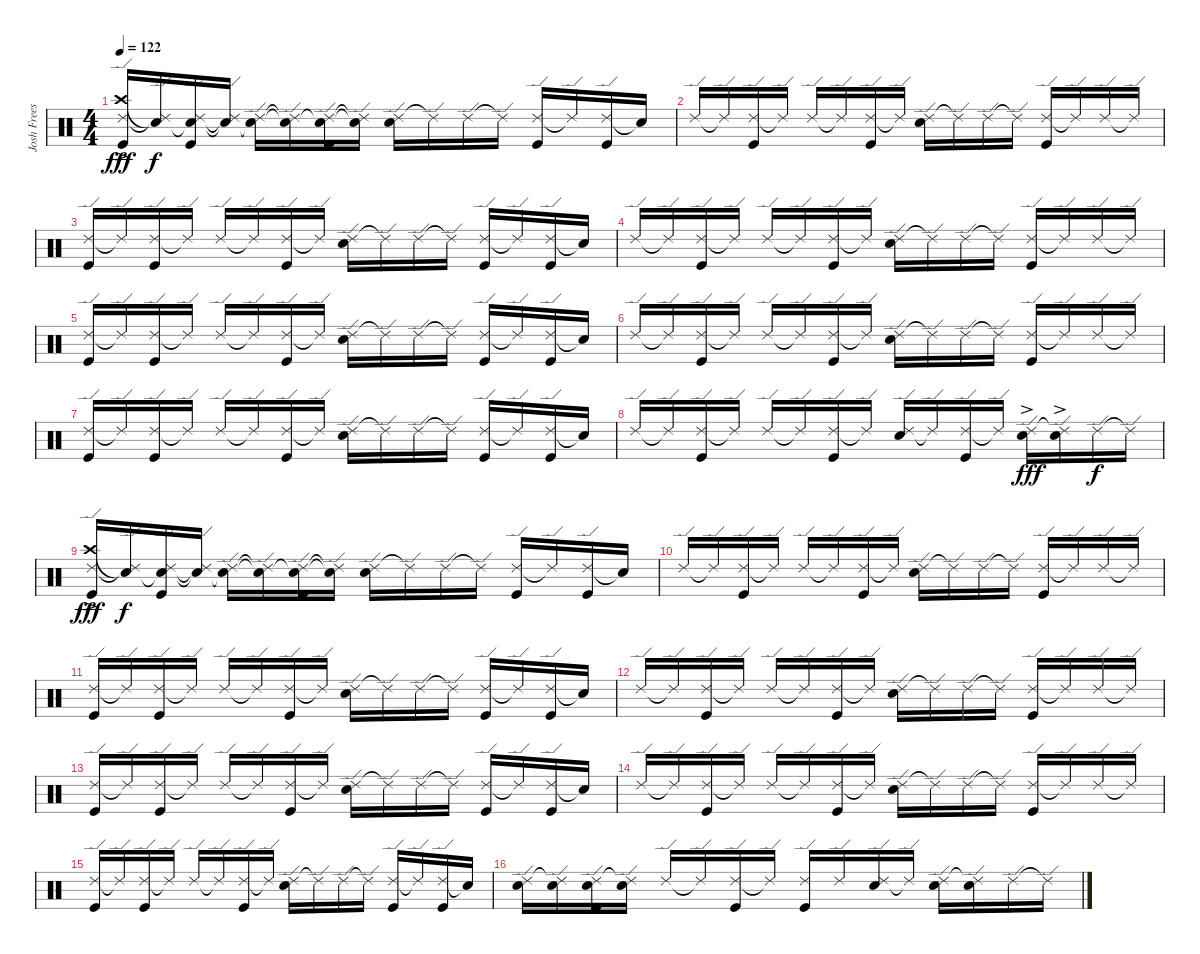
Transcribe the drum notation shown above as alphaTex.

\track ("Josh Freese" "Josh Frees") {instrument percussion}
\staff {score}
\articulation defaults
\ts (4 4)
\tempo 122
\clef neutral
\ks c
("Ride (edge) 2" "Crash high (hit)"{ac} "Kick (hit)").16{dy fff balance 8} ("Ride (edge) 2"{t} "Snare (hit)"{t}).16{dy f} ("Ride (edge) 2" "Snare (hit)"{t} "Kick (hit)").16 ("Ride (edge) 2"{t} "Snare (hit)"{t}).16 ("Ride (edge) 2" "Snare (hit)"{t}).16 ("Ride (edge) 2"{t} "Snare (hit)"{t}).16 ("Ride (edge) 2" "Snare (hit)"{t} "Kick (hit)").16 ("Ride (edge) 2"{t} "Snare (hit)"{t}).16 ("Ride (edge) 2" "Electric Snare (hit)").16 "Ride (edge) 2"{t}.16 "Ride (edge) 2".16 "Ride (edge) 2"{t}.16 ("Ride (edge) 2" "Kick (hit)").16 "Ride (edge) 2"{t}.16 ("Ride (edge) 2" "Kick (hit)").16 "Snare (hit)"{t}.16 |
"Ride (edge) 2".16 "Ride (edge) 2"{t}.16 ("Ride (edge) 2" "Kick (hit)").16 "Ride (edge) 2"{t}.16 "Ride (edge) 2".16 "Ride (edge) 2"{t}.16 ("Ride (edge) 2" "Kick (hit)").16 "Ride (edge) 2"{t}.16 ("Ride (edge) 2" "Electric Snare (hit)").16 "Ride (edge) 2"{t}.16 "Ride (edge) 2".16 "Ride (edge) 2"{t}.16 ("Ride (edge) 2" "Kick (hit)").16 "Ride (edge) 2"{t}.16 "Ride (edge) 2".16 "Ride (edge) 2"{t}.16 |
("Ride (edge) 2" "Kick (hit)").16 "Ride (edge) 2"{t}.16 ("Ride (edge) 2" "Kick (hit)").16 "Ride (edge) 2"{t}.16 "Ride (edge) 2".16 "Ride (edge) 2"{t}.16 ("Ride (edge) 2" "Kick (hit)").16 "Ride (edge) 2"{t}.16 ("Ride (edge) 2" "Electric Snare (hit)").16 "Ride (edge) 2"{t}.16 "Ride (edge) 2".16 "Ride (edge) 2"{t}.16 ("Ride (edge) 2" "Kick (hit)").16 "Ride (edge) 2"{t}.16 ("Ride (edge) 2" "Kick (hit)").16 "Snare (hit)"{t}.16 |
"Ride (edge) 2".16 "Ride (edge) 2"{t}.16 ("Ride (edge) 2" "Kick (hit)").16 "Ride (edge) 2"{t}.16 "Ride (edge) 2".16 "Ride (edge) 2"{t}.16 ("Ride (edge) 2" "Kick (hit)").16 "Ride (edge) 2"{t}.16 ("Ride (edge) 2" "Electric Snare (hit)").16 "Ride (edge) 2"{t}.16 "Ride (edge) 2".16 "Ride (edge) 2"{t}.16 ("Ride (edge) 2" "Kick (hit)").16 "Ride (edge) 2"{t}.16 "Ride (edge) 2".16 "Ride (edge) 2"{t}.16 |
("Ride (edge) 2" "Kick (hit)").16 "Ride (edge) 2"{t}.16 ("Ride (edge) 2" "Kick (hit)").16 "Ride (edge) 2"{t}.16 "Ride (edge) 2".16 "Ride (edge) 2"{t}.16 ("Ride (edge) 2" "Kick (hit)").16 "Ride (edge) 2"{t}.16 ("Ride (edge) 2" "Electric Snare (hit)").16 "Ride (edge) 2"{t}.16 "Ride (edge) 2".16 "Ride (edge) 2"{t}.16 ("Ride (edge) 2" "Kick (hit)").16 "Ride (edge) 2"{t}.16 ("Ride (edge) 2" "Kick (hit)").16 "Snare (hit)"{t}.16 |
"Ride (edge) 2".16 "Ride (edge) 2"{t}.16 ("Ride (edge) 2" "Kick (hit)").16 "Ride (edge) 2"{t}.16 "Ride (edge) 2".16 "Ride (edge) 2"{t}.16 ("Ride (edge) 2" "Kick (hit)").16 "Ride (edge) 2"{t}.16 ("Ride (edge) 2" "Electric Snare (hit)").16 "Ride (edge) 2"{t}.16 "Ride (edge) 2".16 "Ride (edge) 2"{t}.16 ("Ride (edge) 2" "Kick (hit)").16 "Ride (edge) 2"{t}.16 "Ride (edge) 2".16 "Ride (edge) 2"{t}.16 |
("Ride (edge) 2" "Kick (hit)").16 "Ride (edge) 2"{t}.16 ("Ride (edge) 2" "Kick (hit)").16 "Ride (edge) 2"{t}.16 "Ride (edge) 2".16 "Ride (edge) 2"{t}.16 ("Ride (edge) 2" "Kick (hit)").16 "Ride (edge) 2"{t}.16 ("Ride (edge) 2" "Electric Snare (hit)").16 "Ride (edge) 2"{t}.16 "Ride (edge) 2".16 "Ride (edge) 2"{t}.16 ("Ride (edge) 2" "Kick (hit)").16 "Ride (edge) 2"{t}.16 ("Ride (edge) 2" "Kick (hit)").16 "Snare (hit)"{t}.16 |
"Ride (edge) 2".16 "Ride (edge) 2"{t}.16 ("Ride (edge) 2" "Kick (hit)").16 "Ride (edge) 2"{t}.16 "Ride (edge) 2".16 "Ride (edge) 2"{t}.16 ("Ride (edge) 2" "Kick (hit)").16 "Ride (edge) 2"{t}.16 ("Ride (edge) 2" "Electric Snare (hit)").16 "Ride (edge) 2"{t}.16 ("Ride (edge) 2" "Kick (hit)").16 "Ride (edge) 2"{t}.16 ("Ride (edge) 2" "Electric Snare (hit)"{ac}).16{dy fff} ("Ride (edge) 2"{t} "Electric Snare (hit)"{ac}).16 "Ride (edge) 2".16{dy f} "Ride (edge) 2"{t}.16 |
("Ride (edge) 2" "Crash high (hit)"{ac} "Kick (hit)").16{dy fff} ("Ride (edge) 2"{t} "Snare (hit)"{t}).16{dy f} ("Ride (edge) 2" "Snare (hit)"{t} "Kick (hit)").16 ("Ride (edge) 2"{t} "Snare (hit)"{t}).16 ("Ride (edge) 2" "Snare (hit)"{t}).16 ("Ride (edge) 2"{t} "Snare (hit)"{t}).16 ("Ride (edge) 2" "Snare (hit)"{t} "Kick (hit)").16 ("Ride (edge) 2"{t} "Snare (hit)"{t}).16 ("Ride (edge) 2" "Electric Snare (hit)").16 "Ride (edge) 2"{t}.16 "Ride (edge) 2".16 "Ride (edge) 2"{t}.16 ("Ride (edge) 2" "Kick (hit)").16 "Ride (edge) 2"{t}.16 ("Ride (edge) 2" "Kick (hit)").16 "Snare (hit)"{t}.16 |
"Ride (edge) 2".16 "Ride (edge) 2"{t}.16 ("Ride (edge) 2" "Kick (hit)").16 "Ride (edge) 2"{t}.16 "Ride (edge) 2".16 "Ride (edge) 2"{t}.16 ("Ride (edge) 2" "Kick (hit)").16 "Ride (edge) 2"{t}.16 ("Ride (edge) 2" "Electric Snare (hit)").16 "Ride (edge) 2"{t}.16 "Ride (edge) 2".16 "Ride (edge) 2"{t}.16 ("Ride (edge) 2" "Kick (hit)").16 "Ride (edge) 2"{t}.16 "Ride (edge) 2".16 "Ride (edge) 2"{t}.16 |
("Ride (edge) 2" "Kick (hit)").16 "Ride (edge) 2"{t}.16 ("Ride (edge) 2" "Kick (hit)").16 "Ride (edge) 2"{t}.16 "Ride (edge) 2".16 "Ride (edge) 2"{t}.16 ("Ride (edge) 2" "Kick (hit)").16 "Ride (edge) 2"{t}.16 ("Ride (edge) 2" "Electric Snare (hit)").16 "Ride (edge) 2"{t}.16 "Ride (edge) 2".16 "Ride (edge) 2"{t}.16 ("Ride (edge) 2" "Kick (hit)").16 "Ride (edge) 2"{t}.16 ("Ride (edge) 2" "Kick (hit)").16 "Snare (hit)"{t}.16 |
"Ride (edge) 2".16 "Ride (edge) 2"{t}.16 ("Ride (edge) 2" "Kick (hit)").16 "Ride (edge) 2"{t}.16 "Ride (edge) 2".16 "Ride (edge) 2"{t}.16 ("Ride (edge) 2" "Kick (hit)").16 "Ride (edge) 2"{t}.16 ("Ride (edge) 2" "Electric Snare (hit)").16 "Ride (edge) 2"{t}.16 "Ride (edge) 2".16 "Ride (edge) 2"{t}.16 ("Ride (edge) 2" "Kick (hit)").16 "Ride (edge) 2"{t}.16 "Ride (edge) 2".16 "Ride (edge) 2"{t}.16 |
("Ride (edge) 2" "Kick (hit)").16 "Ride (edge) 2"{t}.16 ("Ride (edge) 2" "Kick (hit)").16 "Ride (edge) 2"{t}.16 "Ride (edge) 2".16 "Ride (edge) 2"{t}.16 ("Ride (edge) 2" "Kick (hit)").16 "Ride (edge) 2"{t}.16 ("Ride (edge) 2" "Electric Snare (hit)").16 "Ride (edge) 2"{t}.16 "Ride (edge) 2".16 "Ride (edge) 2"{t}.16 ("Ride (edge) 2" "Kick (hit)").16 "Ride (edge) 2"{t}.16 ("Ride (edge) 2" "Kick (hit)").16 "Snare (hit)"{t}.16 |
"Ride (edge) 2".16 "Ride (edge) 2"{t}.16 ("Ride (edge) 2" "Kick (hit)").16 "Ride (edge) 2"{t}.16 "Ride (edge) 2".16 "Ride (edge) 2"{t}.16 ("Ride (edge) 2" "Kick (hit)").16 "Ride (edge) 2"{t}.16 ("Ride (edge) 2" "Electric Snare (hit)").16 "Ride (edge) 2"{t}.16 "Ride (edge) 2".16 "Ride (edge) 2"{t}.16 ("Ride (edge) 2" "Kick (hit)").16 "Ride (edge) 2"{t}.16 "Ride (edge) 2".16 "Ride (edge) 2"{t}.16 |
("Ride (edge) 2" "Kick (hit)").16 "Ride (edge) 2"{t}.16 ("Ride (edge) 2" "Kick (hit)").16 "Ride (edge) 2"{t}.16 "Ride (edge) 2".16 "Ride (edge) 2"{t}.16 ("Ride (edge) 2" "Kick (hit)").16 "Ride (edge) 2"{t}.16 ("Ride (edge) 2" "Electric Snare (hit)").16 "Ride (edge) 2"{t}.16 "Ride (edge) 2".16 "Ride (edge) 2"{t}.16 ("Ride (edge) 2" "Kick (hit)").16 "Ride (edge) 2"{t}.16 ("Ride (edge) 2" "Kick (hit)").16 "Snare (hit)"{t}.16 |
("Ride (edge) 2" "Electric Snare (hit)").16 ("Ride (edge) 2"{t} "Electric Snare (hit)").16 ("Ride (edge) 2" "Electric Snare (hit)" "Kick (hit)").16 ("Ride (edge) 2"{t} "Electric Snare (hit)").16 "Ride (edge) 2".16 "Ride (edge) 2"{t}.16 ("Ride (edge) 2" "Kick (hit)").16 "Ride (edge) 2"{t}.16 ("Ride (edge) 2" "Kick (hit)").16 "Ride (edge) 2".16 ("Ride (edge) 2" "Electric Snare (hit)").16 "Ride (edge) 2"{t}.16 ("Ride (edge) 2" "Electric Snare (hit)").16 ("Ride (edge) 2"{t} "Electric Snare (hit)").16 "Ride (edge) 2".16 "Ride (edge) 2"{t}.16
